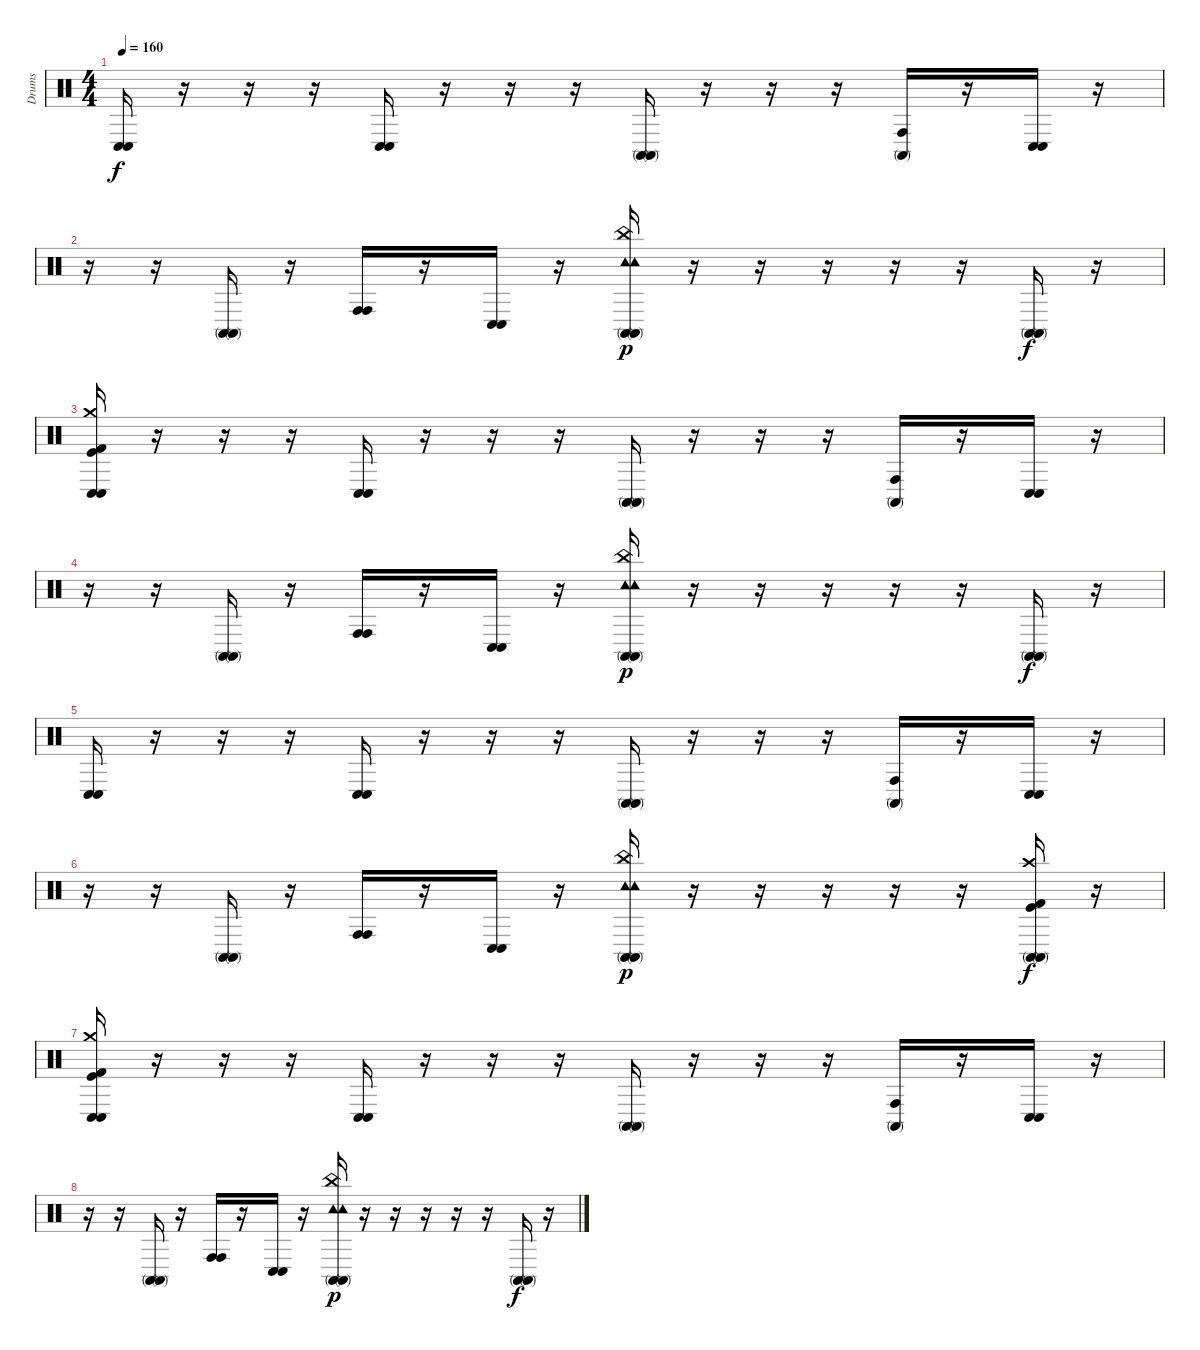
\track ("Drums" "Drums") {instrument percussion}
\staff {score}
\articulation defaults
\ts (4 4)
\tempo 160
\clef neutral
\ks c
("Conga low (hit)" "Conga low (hit)").16{dy f} r.16 r.16 r.16 ("Conga low (hit)" "Conga low (hit)").16 r.16 r.16 r.16 ("Conga high (mute)" "Conga high (mute)").16 r.16 r.16 r.16 ("Conga high (hit)" "Conga high (mute)").16 r.16 ("Conga low (hit)" "Conga low (hit)").16 r.16 |
r.16 r.16 ("Conga high (mute)" "Conga high (mute)").16 r.16 ("Conga high (hit)" "Conga high (hit)").16 r.16 ("Conga low (hit)" "Conga low (hit)").16 r.16 ("Conga high (mute)" "Conga high (mute)" "Tambourine (hit)" "Tambourine (hit)" "China (hit)").16{dy p} r.16 r.16 r.16 r.16 r.16 ("Conga high (mute)" "Conga high (mute)").16{dy f} r.16 |
("Conga low (hit)" "Conga low (hit)" "Crash medium (hit)" "Kick (hit)" "Kick (hit) 2").16 r.16 r.16 r.16 ("Conga low (hit)" "Conga low (hit)").16 r.16 r.16 r.16 ("Conga high (mute)" "Conga high (mute)").16 r.16 r.16 r.16 ("Conga high (hit)" "Conga high (mute)").16 r.16 ("Conga low (hit)" "Conga low (hit)").16 r.16 |
r.16 r.16 ("Conga high (mute)" "Conga high (mute)").16 r.16 ("Conga high (hit)" "Conga high (hit)").16 r.16 ("Conga low (hit)" "Conga low (hit)").16 r.16 ("Conga high (mute)" "Conga high (mute)" "Tambourine (hit)" "Tambourine (hit)" "China (hit)").16{dy p} r.16 r.16 r.16 r.16 r.16 ("Conga high (mute)" "Conga high (mute)").16{dy f} r.16 |
("Conga low (hit)" "Conga low (hit)").16 r.16 r.16 r.16 ("Conga low (hit)" "Conga low (hit)").16 r.16 r.16 r.16 ("Conga high (mute)" "Conga high (mute)").16 r.16 r.16 r.16 ("Conga high (hit)" "Conga high (mute)").16 r.16 ("Conga low (hit)" "Conga low (hit)").16 r.16 |
r.16 r.16 ("Conga high (mute)" "Conga high (mute)").16 r.16 ("Conga high (hit)" "Conga high (hit)").16 r.16 ("Conga low (hit)" "Conga low (hit)").16 r.16 ("Conga high (mute)" "Conga high (mute)" "Tambourine (hit)" "Tambourine (hit)" "China (hit)").16{dy p} r.16 r.16 r.16 r.16 r.16 ("Conga high (mute)" "Conga high (mute)" "Kick (hit)" "Kick (hit) 2" "Crash high (hit)").16{dy f} r.16 |
("Conga low (hit)" "Conga low (hit)" "Crash medium (hit)" "Kick (hit)" "Kick (hit) 2").16 r.16 r.16 r.16 ("Conga low (hit)" "Conga low (hit)").16 r.16 r.16 r.16 ("Conga high (mute)" "Conga high (mute)").16 r.16 r.16 r.16 ("Conga high (hit)" "Conga high (mute)").16 r.16 ("Conga low (hit)" "Conga low (hit)").16 r.16 |
r.16 r.16 ("Conga high (mute)" "Conga high (mute)").16 r.16 ("Conga high (hit)" "Conga high (hit)").16 r.16 ("Conga low (hit)" "Conga low (hit)").16 r.16 ("Conga high (mute)" "Conga high (mute)" "Tambourine (hit)" "Tambourine (hit)" "China (hit)").16{dy p} r.16 r.16 r.16 r.16 r.16 ("Conga high (mute)" "Conga high (mute)").16{dy f} r.16
